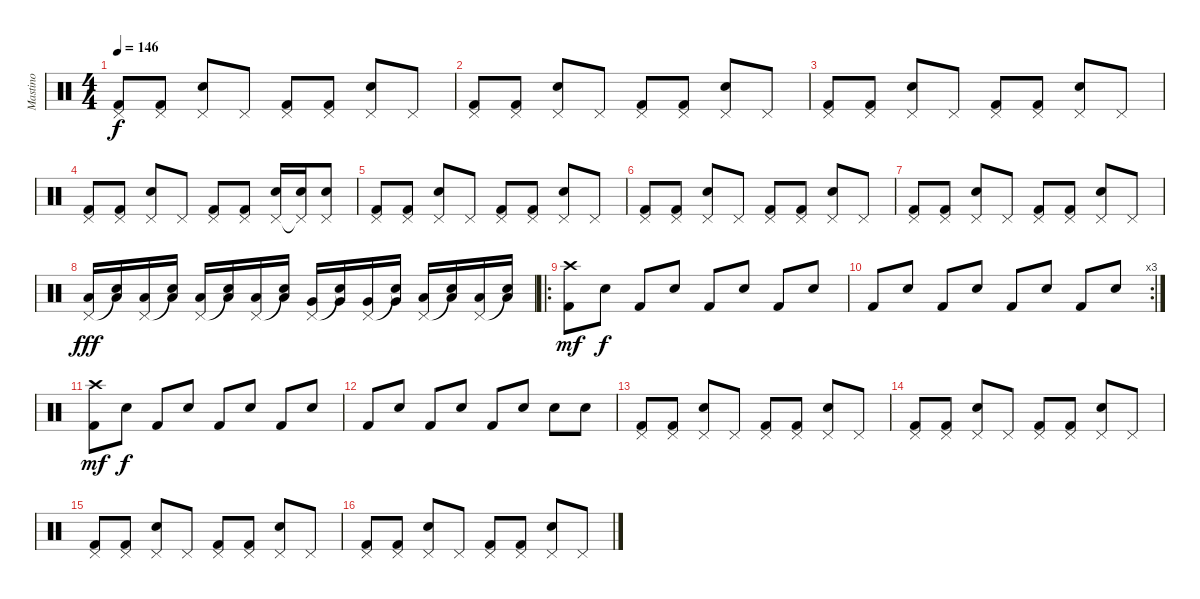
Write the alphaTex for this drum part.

\track ("Mastino" "Mastino") {instrument percussion}
\staff {score}
\articulation defaults
\ts (4 4)
\tempo 146
\clef neutral
\ks c
("Pedal Hi-Hat (hit)" "Kick (hit) 2").8{dy f} ("Pedal Hi-Hat (hit)" "Kick (hit) 2").8 ("Pedal Hi-Hat (hit)" "Electric Snare (hit)").8 "Pedal Hi-Hat (hit)".8 ("Pedal Hi-Hat (hit)" "Kick (hit) 2").8 ("Pedal Hi-Hat (hit)" "Kick (hit) 2").8 ("Pedal Hi-Hat (hit)" "Electric Snare (hit)").8 "Pedal Hi-Hat (hit)".8 |
("Pedal Hi-Hat (hit)" "Kick (hit) 2").8 ("Pedal Hi-Hat (hit)" "Kick (hit) 2").8 ("Pedal Hi-Hat (hit)" "Electric Snare (hit)").8 "Pedal Hi-Hat (hit)".8 ("Pedal Hi-Hat (hit)" "Kick (hit) 2").8 ("Pedal Hi-Hat (hit)" "Kick (hit) 2").8 ("Pedal Hi-Hat (hit)" "Electric Snare (hit)").8 "Pedal Hi-Hat (hit)".8 |
("Pedal Hi-Hat (hit)" "Kick (hit) 2").8 ("Pedal Hi-Hat (hit)" "Kick (hit) 2").8 ("Pedal Hi-Hat (hit)" "Electric Snare (hit)").8 "Pedal Hi-Hat (hit)".8 ("Pedal Hi-Hat (hit)" "Kick (hit) 2").8 ("Pedal Hi-Hat (hit)" "Kick (hit) 2").8 ("Pedal Hi-Hat (hit)" "Electric Snare (hit)").8 "Pedal Hi-Hat (hit)".8 |
("Pedal Hi-Hat (hit)" "Kick (hit) 2").8 ("Pedal Hi-Hat (hit)" "Kick (hit) 2").8 ("Pedal Hi-Hat (hit)" "Electric Snare (hit)").8 "Pedal Hi-Hat (hit)".8 ("Pedal Hi-Hat (hit)" "Kick (hit) 2").8 ("Pedal Hi-Hat (hit)" "Kick (hit) 2").8 ("Pedal Hi-Hat (hit)" "Electric Snare (hit)").16 ("Pedal Hi-Hat (hit)"{t} "Electric Snare (hit)").16 ("Pedal Hi-Hat (hit)" "Electric Snare (hit)").8 |
("Pedal Hi-Hat (hit)" "Kick (hit) 2").8 ("Pedal Hi-Hat (hit)" "Kick (hit) 2").8 ("Pedal Hi-Hat (hit)" "Electric Snare (hit)").8 "Pedal Hi-Hat (hit)".8 ("Pedal Hi-Hat (hit)" "Kick (hit) 2").8 ("Pedal Hi-Hat (hit)" "Kick (hit) 2").8 ("Pedal Hi-Hat (hit)" "Electric Snare (hit)").8 "Pedal Hi-Hat (hit)".8 |
("Pedal Hi-Hat (hit)" "Kick (hit) 2").8 ("Pedal Hi-Hat (hit)" "Kick (hit) 2").8 ("Pedal Hi-Hat (hit)" "Electric Snare (hit)").8 "Pedal Hi-Hat (hit)".8 ("Pedal Hi-Hat (hit)" "Kick (hit) 2").8 ("Pedal Hi-Hat (hit)" "Kick (hit) 2").8 ("Pedal Hi-Hat (hit)" "Electric Snare (hit)").8 "Pedal Hi-Hat (hit)".8 |
("Pedal Hi-Hat (hit)" "Kick (hit) 2").8 ("Pedal Hi-Hat (hit)" "Kick (hit) 2").8 ("Pedal Hi-Hat (hit)" "Electric Snare (hit)").8 "Pedal Hi-Hat (hit)".8 ("Pedal Hi-Hat (hit)" "Kick (hit) 2").8 ("Pedal Hi-Hat (hit)" "Kick (hit) 2").8 ("Pedal Hi-Hat (hit)" "Electric Snare (hit)").8 "Pedal Hi-Hat (hit)".8 |
("Pedal Hi-Hat (hit)" "Low Floor Tom (hit)").16{dy fff} ("Snare (hit)"{t} "Low Floor Tom (hit)").16 ("Pedal Hi-Hat (hit)" "Low Floor Tom (hit)").16 ("Snare (hit)"{t} "Low Floor Tom (hit)").16 ("Pedal Hi-Hat (hit)" "Low Tom (hit)").16 ("Snare (hit)"{t} "Low Tom (hit)").16 ("Pedal Hi-Hat (hit)" "Low Tom (hit)").16 ("Snare (hit)"{t} "Low Tom (hit)").16 ("Pedal Hi-Hat (hit)" "Very Low Tom (hit)").16 ("Snare (hit)"{t} "Very Low Tom (hit)").16 ("Pedal Hi-Hat (hit)" "Very Low Tom (hit)").16 ("Snare (hit)"{t} "Very Low Tom (hit)").16 ("Pedal Hi-Hat (hit)" "Low Tom (hit)").16 ("Snare (hit)"{t} "Low Tom (hit)").16 ("Pedal Hi-Hat (hit)" "Low Tom (hit)").16 ("Snare (hit)"{t} "Low Tom (hit)").16 |
\ro
("Crash high (hit)" "Kick (hit) 2").8{dy mf} "Electric Snare (hit)".8{dy f} "Kick (hit) 2".8 "Electric Snare (hit)".8 "Kick (hit) 2".8 "Electric Snare (hit)".8 "Kick (hit) 2".8 "Electric Snare (hit)".8 |
\rc 3 "Kick (hit) 2".8 "Electric Snare (hit)".8 "Kick (hit) 2".8 "Electric Snare (hit)".8 "Kick (hit) 2".8 "Electric Snare (hit)".8 "Kick (hit) 2".8 "Electric Snare (hit)".8
|
("Crash high (hit)" "Kick (hit) 2").8{dy mf} "Electric Snare (hit)".8{dy f} "Kick (hit) 2".8 "Electric Snare (hit)".8 "Kick (hit) 2".8 "Electric Snare (hit)".8 "Kick (hit) 2".8 "Electric Snare (hit)".8 |
"Kick (hit) 2".8 "Electric Snare (hit)".8 "Kick (hit) 2".8 "Electric Snare (hit)".8 "Kick (hit) 2".8 "Electric Snare (hit)".8 "Electric Snare (hit)".8 "Electric Snare (hit)".8 |
("Pedal Hi-Hat (hit)" "Kick (hit) 2").8 ("Pedal Hi-Hat (hit)" "Kick (hit) 2").8 ("Pedal Hi-Hat (hit)" "Electric Snare (hit)").8 "Pedal Hi-Hat (hit)".8 ("Pedal Hi-Hat (hit)" "Kick (hit) 2").8 ("Pedal Hi-Hat (hit)" "Kick (hit) 2").8 ("Pedal Hi-Hat (hit)" "Electric Snare (hit)").8 "Pedal Hi-Hat (hit)".8 |
("Pedal Hi-Hat (hit)" "Kick (hit) 2").8 ("Pedal Hi-Hat (hit)" "Kick (hit) 2").8 ("Pedal Hi-Hat (hit)" "Electric Snare (hit)").8 "Pedal Hi-Hat (hit)".8 ("Pedal Hi-Hat (hit)" "Kick (hit) 2").8 ("Pedal Hi-Hat (hit)" "Kick (hit) 2").8 ("Pedal Hi-Hat (hit)" "Electric Snare (hit)").8 "Pedal Hi-Hat (hit)".8 |
("Pedal Hi-Hat (hit)" "Kick (hit) 2").8 ("Pedal Hi-Hat (hit)" "Kick (hit) 2").8 ("Pedal Hi-Hat (hit)" "Electric Snare (hit)").8 "Pedal Hi-Hat (hit)".8 ("Pedal Hi-Hat (hit)" "Kick (hit) 2").8 ("Pedal Hi-Hat (hit)" "Kick (hit) 2").8 ("Pedal Hi-Hat (hit)" "Electric Snare (hit)").8 "Pedal Hi-Hat (hit)".8 |
("Pedal Hi-Hat (hit)" "Kick (hit) 2").8 ("Pedal Hi-Hat (hit)" "Kick (hit) 2").8 ("Pedal Hi-Hat (hit)" "Electric Snare (hit)").8 "Pedal Hi-Hat (hit)".8 ("Pedal Hi-Hat (hit)" "Kick (hit) 2").8 ("Pedal Hi-Hat (hit)" "Kick (hit) 2").8 ("Pedal Hi-Hat (hit)" "Electric Snare (hit)").8 "Pedal Hi-Hat (hit)".8
